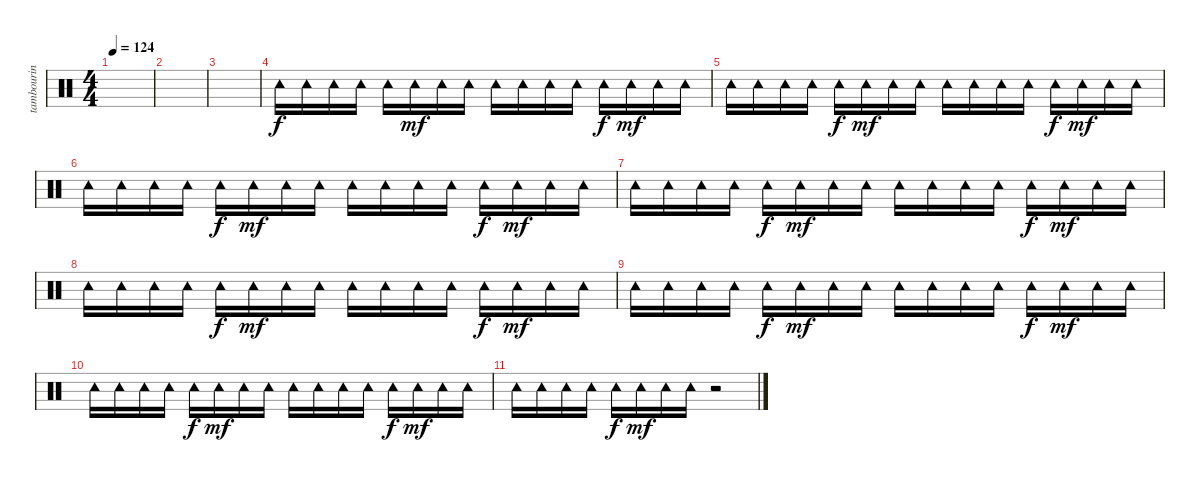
\track ("tambourin" "tambourin") {instrument percussion}
\staff {score}
\articulation defaults
\ts (4 4)
\tempo 124
\clef neutral
\ks c
|
|
|
"Tambourine (hit)".16 "Tambourine (hit)".16 "Tambourine (hit)".16 "Tambourine (hit)".16 "Tambourine (hit)".16{dy f} "Tambourine (hit)".16{dy mf} "Tambourine (hit)".16 "Tambourine (hit)".16 "Tambourine (hit)".16 "Tambourine (hit)".16 "Tambourine (hit)".16 "Tambourine (hit)".16 "Tambourine (hit)".16{dy f} "Tambourine (hit)".16{dy mf} "Tambourine (hit)".16 "Tambourine (hit)".16 |
"Tambourine (hit)".16 "Tambourine (hit)".16 "Tambourine (hit)".16 "Tambourine (hit)".16 "Tambourine (hit)".16{dy f} "Tambourine (hit)".16{dy mf} "Tambourine (hit)".16 "Tambourine (hit)".16 "Tambourine (hit)".16 "Tambourine (hit)".16 "Tambourine (hit)".16 "Tambourine (hit)".16 "Tambourine (hit)".16{dy f} "Tambourine (hit)".16{dy mf} "Tambourine (hit)".16 "Tambourine (hit)".16 |
"Tambourine (hit)".16 "Tambourine (hit)".16 "Tambourine (hit)".16 "Tambourine (hit)".16 "Tambourine (hit)".16{dy f} "Tambourine (hit)".16{dy mf} "Tambourine (hit)".16 "Tambourine (hit)".16 "Tambourine (hit)".16 "Tambourine (hit)".16 "Tambourine (hit)".16 "Tambourine (hit)".16 "Tambourine (hit)".16{dy f} "Tambourine (hit)".16{dy mf} "Tambourine (hit)".16 "Tambourine (hit)".16 |
"Tambourine (hit)".16 "Tambourine (hit)".16 "Tambourine (hit)".16 "Tambourine (hit)".16 "Tambourine (hit)".16{dy f} "Tambourine (hit)".16{dy mf} "Tambourine (hit)".16 "Tambourine (hit)".16 "Tambourine (hit)".16 "Tambourine (hit)".16 "Tambourine (hit)".16 "Tambourine (hit)".16 "Tambourine (hit)".16{dy f} "Tambourine (hit)".16{dy mf} "Tambourine (hit)".16 "Tambourine (hit)".16 |
"Tambourine (hit)".16 "Tambourine (hit)".16 "Tambourine (hit)".16 "Tambourine (hit)".16 "Tambourine (hit)".16{dy f} "Tambourine (hit)".16{dy mf} "Tambourine (hit)".16 "Tambourine (hit)".16 "Tambourine (hit)".16 "Tambourine (hit)".16 "Tambourine (hit)".16 "Tambourine (hit)".16 "Tambourine (hit)".16{dy f} "Tambourine (hit)".16{dy mf} "Tambourine (hit)".16 "Tambourine (hit)".16 |
"Tambourine (hit)".16 "Tambourine (hit)".16 "Tambourine (hit)".16 "Tambourine (hit)".16 "Tambourine (hit)".16{dy f} "Tambourine (hit)".16{dy mf} "Tambourine (hit)".16 "Tambourine (hit)".16 "Tambourine (hit)".16 "Tambourine (hit)".16 "Tambourine (hit)".16 "Tambourine (hit)".16 "Tambourine (hit)".16{dy f} "Tambourine (hit)".16{dy mf} "Tambourine (hit)".16 "Tambourine (hit)".16 |
"Tambourine (hit)".16 "Tambourine (hit)".16 "Tambourine (hit)".16 "Tambourine (hit)".16 "Tambourine (hit)".16{dy f} "Tambourine (hit)".16{dy mf} "Tambourine (hit)".16 "Tambourine (hit)".16 "Tambourine (hit)".16 "Tambourine (hit)".16 "Tambourine (hit)".16 "Tambourine (hit)".16 "Tambourine (hit)".16{dy f} "Tambourine (hit)".16{dy mf} "Tambourine (hit)".16 "Tambourine (hit)".16 |
"Tambourine (hit)".16 "Tambourine (hit)".16 "Tambourine (hit)".16 "Tambourine (hit)".16 "Tambourine (hit)".16{dy f} "Tambourine (hit)".16{dy mf} "Tambourine (hit)".16 "Tambourine (hit)".16 r.2
